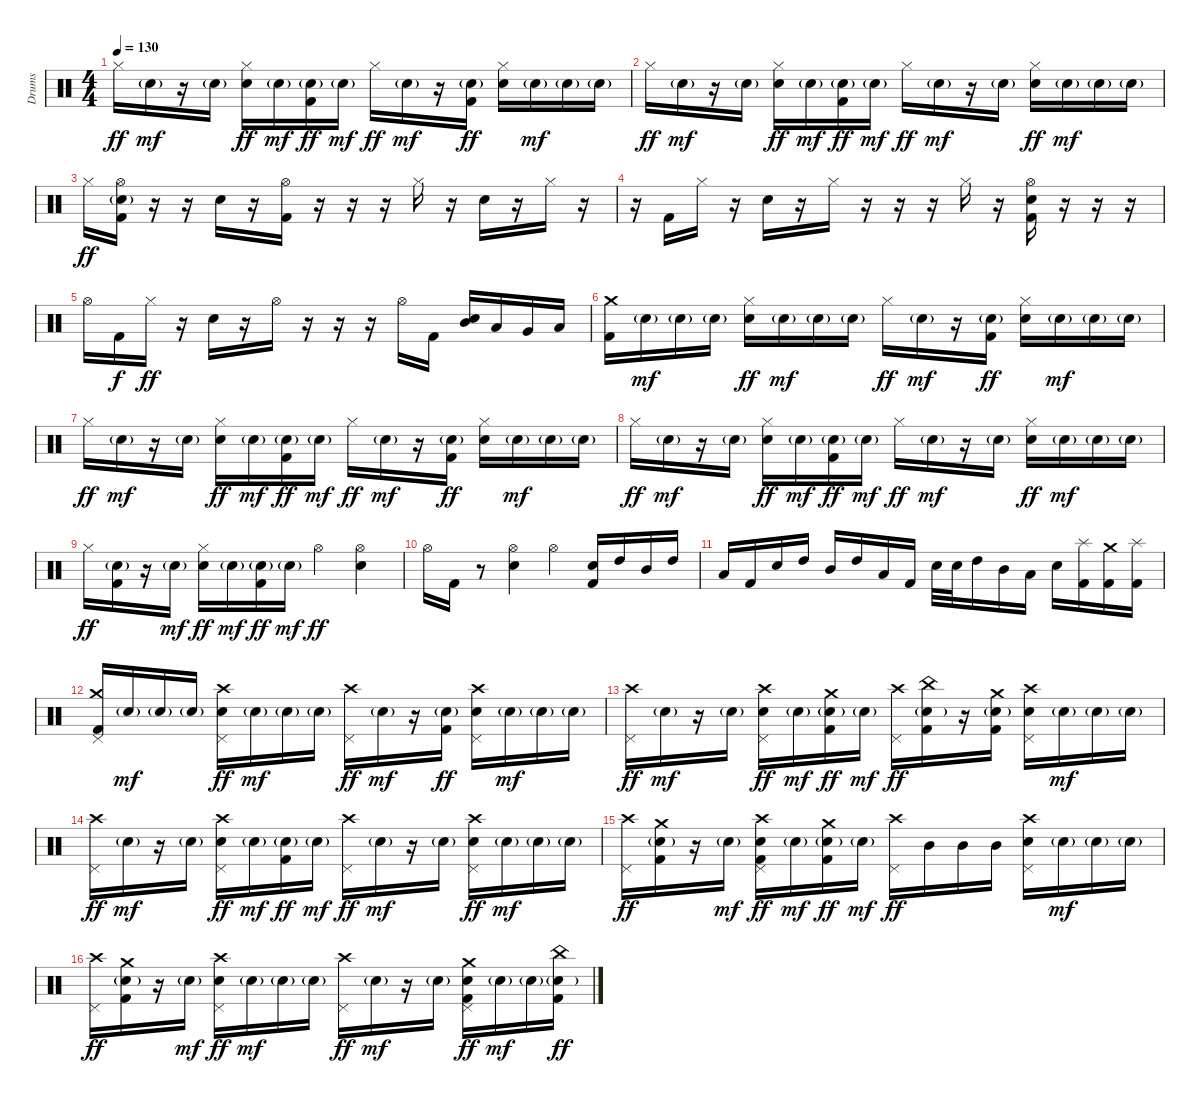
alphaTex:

\track ("Drums" "Drums") {instrument percussion}
\staff {score}
\articulation defaults
\ts (4 4)
\tempo 130
\clef neutral
\ks c "Hi-Hat (closed)".16{dy ff} "Electric Snare (hit)"{g}.16{dy mf}
r.16 "Electric Snare (hit)"{g}.16 ("Hi-Hat (closed)" "Electric Snare (hit)").16{dy ff} "Electric Snare (hit)"{g}.16{dy mf} ("Electric Snare (hit)"{g} "Kick (hit) 2").16{dy ff} "Electric Snare (hit)"{g}.16{dy mf} "Hi-Hat (closed)".16{dy ff} "Electric Snare (hit)"{g}.16{dy mf} r.16 ("Electric Snare (hit)"{g} "Kick (hit) 2").16{dy ff} ("Hi-Hat (closed)" "Electric Snare (hit)").16 "Electric Snare (hit)"{g}.16{dy mf} "Electric Snare (hit)"{g}.16 "Electric Snare (hit)"{g}.16 |
"Hi-Hat (closed)".16{dy ff} "Electric Snare (hit)"{g}.16{dy mf} r.16 "Electric Snare (hit)"{g}.16 ("Hi-Hat (closed)" "Electric Snare (hit)").16{dy ff} "Electric Snare (hit)"{g}.16{dy mf} ("Electric Snare (hit)"{g} "Kick (hit) 2").16{dy ff} "Electric Snare (hit)"{g}.16{dy mf} "Hi-Hat (closed)".16{dy ff} "Electric Snare (hit)"{g}.16{dy mf} r.16 "Electric Snare (hit)"{g}.16 ("Hi-Hat (closed)" "Electric Snare (hit)").16{dy ff} "Electric Snare (hit)"{g}.16{dy mf} "Electric Snare (hit)"{g}.16 "Electric Snare (hit)"{g}.16 |
"Hi-Hat (closed)".16{dy ff} ("Hi-Hat (open)" "Electric Snare (hit)"{g} "Kick (hit) 2").16 r.16 r.16 "Electric Snare (hit)".16 r.16 ("Hi-Hat (open)" "Kick (hit) 2").16 r.16 r.16 r.16 "Hi-Hat (closed)".16 r.16 "Electric Snare (hit)".16 r.16 "Hi-Hat (closed)".16 r.16 |
r.16 "Kick (hit) 2".16 "Hi-Hat (closed)".16 r.16 "Electric Snare (hit)".16 r.16 "Hi-Hat (closed)".16 r.16 r.16 r.16 "Hi-Hat (closed)".16 r.16 ("Hi-Hat (open)" "Electric Snare (hit)" "Kick (hit) 2").16 r.16 r.16 r.16 |
"Hi-Hat (open)".16 "Kick (hit) 2".16{dy f} "Hi-Hat (closed)".16{dy ff} r.16 "Electric Snare (hit)".16 r.16 "Hi-Hat (open)".16 r.16 r.16 r.16 "Hi-Hat (open)".16 "Kick (hit) 2".16 ("Mid Tom (hit)" "Electric Snare (hit)").16 "Low Tom (hit)".16 "Very Low Tom (hit)".16 "Low Floor Tom (hit)".16 |
("Crash medium (hit)" "Kick (hit) 2").16 "Electric Snare (hit)"{g}.16{dy mf} "Electric Snare (hit)"{g}.16 "Electric Snare (hit)"{g}.16 ("Hi-Hat (closed)" "Electric Snare (hit)").16{dy ff} "Electric Snare (hit)"{g}.16{dy mf} "Electric Snare (hit)"{g}.16 "Electric Snare (hit)"{g}.16 "Hi-Hat (closed)".16{dy ff} "Electric Snare (hit)"{g}.16{dy mf} r.16 ("Electric Snare (hit)"{g} "Kick (hit) 2").16{dy ff} ("Hi-Hat (closed)" "Electric Snare (hit)").16 "Electric Snare (hit)"{g}.16{dy mf} "Electric Snare (hit)"{g}.16 "Electric Snare (hit)"{g}.16 |
"Hi-Hat (closed)".16{dy ff} "Electric Snare (hit)"{g}.16{dy mf} r.16 "Electric Snare (hit)"{g}.16 ("Hi-Hat (closed)" "Electric Snare (hit)").16{dy ff} "Electric Snare (hit)"{g}.16{dy mf} ("Electric Snare (hit)"{g} "Kick (hit) 2").16{dy ff} "Electric Snare (hit)"{g}.16{dy mf} "Hi-Hat (closed)".16{dy ff} "Electric Snare (hit)"{g}.16{dy mf} r.16 ("Electric Snare (hit)"{g} "Kick (hit) 2").16{dy ff} ("Hi-Hat (closed)" "Electric Snare (hit)").16 "Electric Snare (hit)"{g}.16{dy mf} "Electric Snare (hit)"{g}.16 "Electric Snare (hit)"{g}.16 |
"Hi-Hat (closed)".16{dy ff} "Electric Snare (hit)"{g}.16{dy mf} r.16 "Electric Snare (hit)"{g}.16 ("Hi-Hat (closed)" "Electric Snare (hit)").16{dy ff} "Electric Snare (hit)"{g}.16{dy mf} ("Electric Snare (hit)"{g} "Kick (hit) 2").16{dy ff} "Electric Snare (hit)"{g}.16{dy mf} "Hi-Hat (closed)".16{dy ff} "Electric Snare (hit)"{g}.16{dy mf} r.16 "Electric Snare (hit)"{g}.16 ("Hi-Hat (closed)" "Electric Snare (hit)").16{dy ff} "Electric Snare (hit)"{g}.16{dy mf} "Electric Snare (hit)"{g}.16 "Electric Snare (hit)"{g}.16 |
"Hi-Hat (closed)".16{dy ff} ("Electric Snare (hit)"{g} "Kick (hit) 2").16 r.16 "Electric Snare (hit)"{g}.16{dy mf} ("Hi-Hat (closed)" "Electric Snare (hit)").16{dy ff} "Electric Snare (hit)"{g}.16{dy mf} ("Electric Snare (hit)"{g} "Kick (hit) 2").16{dy ff} "Electric Snare (hit)"{g}.16{dy mf} "Hi-Hat (open)".4{dy ff} ("Hi-Hat (open)" "Electric Snare (hit)").4 |
"Hi-Hat (open)".16 "Kick (hit) 2".16 r.8 ("Hi-Hat (open)" "Electric Snare (hit)").4 "Hi-Hat (open)".4 ("Electric Snare (hit)" "Kick (hit) 2").16 "High Tom (hit)".16 "Mid Tom (hit)".16 "High Tom (hit)".16 |
"Low Tom (hit)".16 "Kick (hit) 2".16 "Electric Snare (hit)".16 "High Tom (hit)".16 "Mid Tom (hit)".16 "High Tom (hit)".16 "Low Tom (hit)".16 "Kick (hit) 2".16 "Electric Snare (hit)".32 "Electric Snare (hit)".32 "High Tom (hit)".16 "Mid Tom (hit)".16 "Low Tom (hit)".16 "Electric Snare (hit)".16 ("Splash (hit)" "Kick (hit) 2").16 ("Crash medium (hit)" "Kick (hit) 2").16 ("Splash (hit)" "Kick (hit) 2").16 |
("Crash medium (hit)" "Pedal Hi-Hat (hit)" "Kick (hit) 2").16 "Electric Snare (hit)"{g}.16{dy mf} "Electric Snare (hit)"{g}.16 "Electric Snare (hit)"{g}.16 ("Crash high (hit)" "Pedal Hi-Hat (hit)" "Electric Snare (hit)").16{dy ff} "Electric Snare (hit)"{g}.16{dy mf} "Electric Snare (hit)"{g}.16 "Electric Snare (hit)"{g}.16 ("Crash high (hit)" "Pedal Hi-Hat (hit)").16{dy ff} "Electric Snare (hit)"{g}.16{dy mf} r.16 ("Electric Snare (hit)"{g} "Kick (hit) 2").16{dy ff} ("Crash high (hit)" "Pedal Hi-Hat (hit)" "Electric Snare (hit)").16 "Electric Snare (hit)"{g}.16{dy mf} "Electric Snare (hit)"{g}.16 "Electric Snare (hit)"{g}.16 |
("Crash high (hit)" "Pedal Hi-Hat (hit)").16{dy ff} "Electric Snare (hit)"{g}.16{dy mf} r.16 "Electric Snare (hit)"{g}.16 ("Crash high (hit)" "Pedal Hi-Hat (hit)" "Electric Snare (hit)").16{dy ff} "Electric Snare (hit)"{g}.16{dy mf} ("Crash medium (hit)" "Electric Snare (hit)"{g} "Kick (hit) 2").16{dy ff} "Electric Snare (hit)"{g}.16{dy mf} ("Crash high (hit)" "Pedal Hi-Hat (hit)").16{dy ff} ("China (hit)" "Electric Snare (hit)"{g} "Kick (hit) 2").16 r.16 ("Crash medium (hit)" "Electric Snare (hit)"{g} "Kick (hit) 2").16 ("Crash high (hit)" "Pedal Hi-Hat (hit)" "Electric Snare (hit)").16 "Electric Snare (hit)"{g}.16{dy mf} "Electric Snare (hit)"{g}.16 "Electric Snare (hit)"{g}.16 |
("Crash high (hit)" "Pedal Hi-Hat (hit)").16{dy ff} "Electric Snare (hit)"{g}.16{dy mf} r.16 "Electric Snare (hit)"{g}.16 ("Crash high (hit)" "Pedal Hi-Hat (hit)" "Electric Snare (hit)").16{dy ff} "Electric Snare (hit)"{g}.16{dy mf} ("Electric Snare (hit)"{g} "Kick (hit) 2").16{dy ff} "Electric Snare (hit)"{g}.16{dy mf} ("Crash high (hit)" "Pedal Hi-Hat (hit)").16{dy ff} "Electric Snare (hit)"{g}.16{dy mf} r.16 "Electric Snare (hit)"{g}.16 ("Crash high (hit)" "Pedal Hi-Hat (hit)" "Electric Snare (hit)").16{dy ff} "Electric Snare (hit)"{g}.16{dy mf} "Electric Snare (hit)"{g}.16 "Electric Snare (hit)"{g}.16 |
("Crash high (hit)" "Pedal Hi-Hat (hit)").16{dy ff} ("Crash medium (hit)" "Electric Snare (hit)"{g} "Kick (hit) 2").16 r.16 "Electric Snare (hit)"{g}.16{dy mf} ("Crash high (hit)" "Pedal Hi-Hat (hit)" "Electric Snare (hit)" "Kick (hit) 2").16{dy ff} "Electric Snare (hit)"{g}.16{dy mf} ("Crash medium (hit)" "Electric Snare (hit)"{g} "Kick (hit) 2").16{dy ff} "Electric Snare (hit)"{g}.16{dy mf} ("Crash high (hit)" "Pedal Hi-Hat (hit)").16{dy ff} "Mid Tom (hit)".16 "Mid Tom (hit)".16 "Mid Tom (hit)".16 ("Crash high (hit)" "Pedal Hi-Hat (hit)" "Electric Snare (hit)").16 "Electric Snare (hit)"{g}.16{dy mf} "Electric Snare (hit)"{g}.16 "Electric Snare (hit)"{g}.16 |
("Crash high (hit)" "Pedal Hi-Hat (hit)").16{dy ff} ("Crash medium (hit)" "Electric Snare (hit)"{g} "Kick (hit) 2").16 r.16 "Electric Snare (hit)"{g}.16{dy mf} ("Crash high (hit)" "Pedal Hi-Hat (hit)" "Electric Snare (hit)").16{dy ff} "Electric Snare (hit)"{g}.16{dy mf} "Electric Snare (hit)"{g}.16 "Electric Snare (hit)"{g}.16 ("Crash high (hit)" "Pedal Hi-Hat (hit)").16{dy ff} "Electric Snare (hit)"{g}.16{dy mf} r.16 "Electric Snare (hit)"{g}.16 ("Crash medium (hit)" "Pedal Hi-Hat (hit)" "Electric Snare (hit)" "Kick (hit) 2").16{dy ff} "Electric Snare (hit)"{g}.16{dy mf} "Electric Snare (hit)"{g}.16 ("China (hit)" "Electric Snare (hit)"{g} "Kick (hit) 2").16{dy ff}
